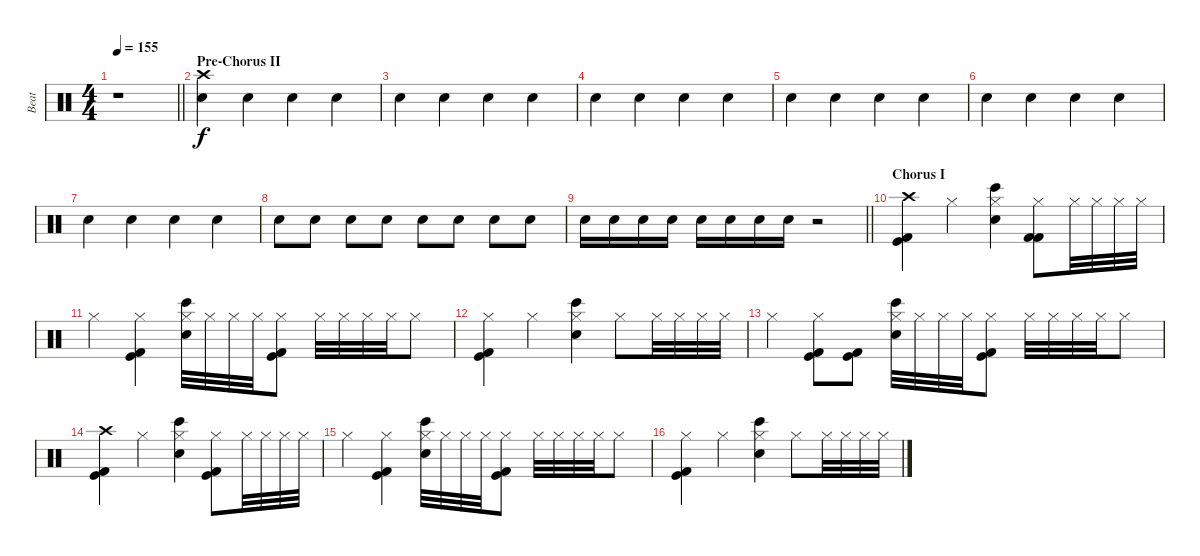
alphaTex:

\track ("Beat" "Beat") {instrument percussion}
\staff {score}
\articulation defaults
\ts (4 4)
\tempo 155
\clef neutral
\barLineRight lightlight
\ks c
r.1{dy f} |
\section ("" "Pre-Chorus II")
("Crash high (hit)" "Hand Clap (hit)").4 "Hand Clap (hit)".4 "Hand Clap (hit)".4 "Hand Clap (hit)".4 |
"Hand Clap (hit)".4 "Hand Clap (hit)".4 "Hand Clap (hit)".4 "Hand Clap (hit)".4 |
"Hand Clap (hit)".4 "Hand Clap (hit)".4 "Hand Clap (hit)".4 "Hand Clap (hit)".4 |
"Hand Clap (hit)".4 "Hand Clap (hit)".4 "Hand Clap (hit)".4 "Hand Clap (hit)".4 |
"Hand Clap (hit)".4 "Hand Clap (hit)".4 "Hand Clap (hit)".4 "Hand Clap (hit)".4 |
"Hand Clap (hit)".4 "Hand Clap (hit)".4 "Hand Clap (hit)".4 "Hand Clap (hit)".4 |
"Hand Clap (hit)".8 "Hand Clap (hit)".8 "Hand Clap (hit)".8 "Hand Clap (hit)".8 "Hand Clap (hit)".8 "Hand Clap (hit)".8 "Hand Clap (hit)".8 "Hand Clap (hit)".8 |
\barLineRight lightlight "Hand Clap (hit)".16 "Hand Clap (hit)".16 "Hand Clap (hit)".16 "Hand Clap (hit)".16 "Hand Clap (hit)".16 "Hand Clap (hit)".16 "Hand Clap (hit)".16 "Hand Clap (hit)".16
r.2 |
\section ("" "Chorus I")
("Crash high (hit)" "Kick (hit)" "Kick (hit) 2").4 "Hi-Hat (closed)".4 ("Hi-Hat (closed)" "Hand Clap (hit)" "Bongo High (hit)").4 ("Hi-Hat (closed)" "Kick (hit) 2" "Kick (hit) 2").8 "Hi-Hat (closed)".32 "Hi-Hat (closed)".32 "Hi-Hat (closed)".32 "Hi-Hat (closed)".32 |
"Hi-Hat (closed)".4 ("Hi-Hat (closed)" "Kick (hit)" "Kick (hit) 2").4 ("Hi-Hat (closed)" "Hand Clap (hit)" "Bongo High (hit)").32 "Hi-Hat (closed)".32 "Hi-Hat (closed)".32 "Hi-Hat (closed)".32 ("Hi-Hat (closed)" "Kick (hit)" "Kick (hit) 2").8 "Hi-Hat (closed)".32 "Hi-Hat (closed)".32 "Hi-Hat (closed)".32 "Hi-Hat (closed)".32 "Hi-Hat (closed)".8 |
("Hi-Hat (closed)" "Kick (hit)" "Kick (hit) 2").4 "Hi-Hat (closed)".4 ("Hi-Hat (closed)" "Hand Clap (hit)" "Bongo High (hit)").4 "Hi-Hat (closed)".8 "Hi-Hat (closed)".32 "Hi-Hat (closed)".32 "Hi-Hat (closed)".32 "Hi-Hat (closed)".32 |
"Hi-Hat (closed)".4 ("Hi-Hat (closed)" "Kick (hit)" "Kick (hit) 2").8 ("Kick (hit)" "Kick (hit) 2").8 ("Hi-Hat (closed)" "Hand Clap (hit)" "Bongo High (hit)").32 "Hi-Hat (closed)".32 "Hi-Hat (closed)".32 "Hi-Hat (closed)".32 ("Hi-Hat (closed)" "Kick (hit)" "Kick (hit) 2").8 "Hi-Hat (closed)".32 "Hi-Hat (closed)".32 "Hi-Hat (closed)".32 "Hi-Hat (closed)".32 "Hi-Hat (closed)".8 |
("Crash high (hit)" "Kick (hit)" "Kick (hit) 2").4 "Hi-Hat (closed)".4 ("Hi-Hat (closed)" "Hand Clap (hit)" "Bongo High (hit)").4 ("Hi-Hat (closed)" "Kick (hit)" "Kick (hit) 2").8 "Hi-Hat (closed)".32 "Hi-Hat (closed)".32 "Hi-Hat (closed)".32 "Hi-Hat (closed)".32 |
"Hi-Hat (closed)".4 ("Hi-Hat (closed)" "Kick (hit)" "Kick (hit) 2").4 ("Hi-Hat (closed)" "Hand Clap (hit)" "Bongo High (hit)").32 "Hi-Hat (closed)".32 "Hi-Hat (closed)".32 "Hi-Hat (closed)".32 ("Hi-Hat (closed)" "Kick (hit)" "Kick (hit) 2").8 "Hi-Hat (closed)".32 "Hi-Hat (closed)".32 "Hi-Hat (closed)".32 "Hi-Hat (closed)".32 "Hi-Hat (closed)".8 |
("Hi-Hat (closed)" "Kick (hit)" "Kick (hit) 2").4 "Hi-Hat (closed)".4 ("Hi-Hat (closed)" "Hand Clap (hit)" "Bongo High (hit)").4 "Hi-Hat (closed)".8 "Hi-Hat (closed)".32 "Hi-Hat (closed)".32 "Hi-Hat (closed)".32 "Hi-Hat (closed)".32
